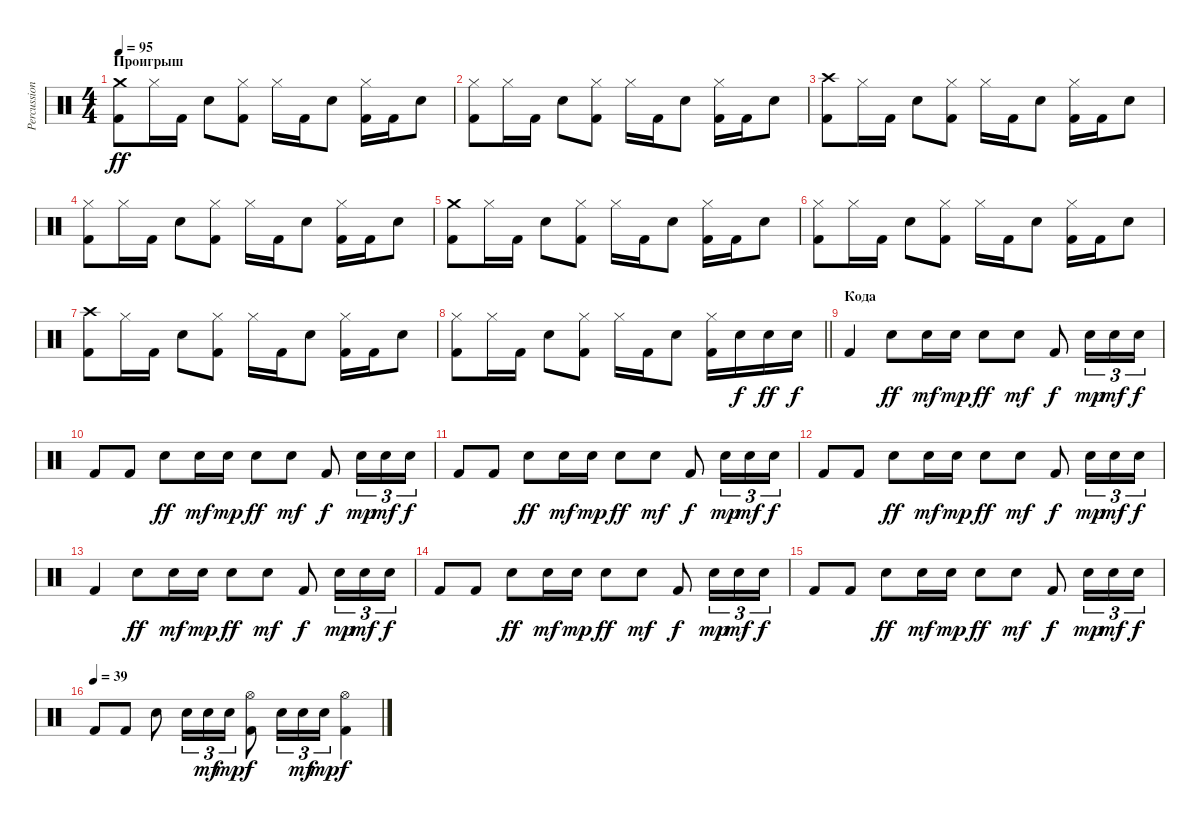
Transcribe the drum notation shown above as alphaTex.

\track ("Percussion" "Percussion") {instrument percussion}
\staff {score}
\articulation defaults
\ts (4 4)
\section ("" "Проигрыш")
\tempo 95
\clef neutral
\ks c
("Crash medium (hit)" "Kick (hit) 2").8{dy ff} "Hi-Hat (closed)".16 "Kick (hit) 2".16 "Electric Snare (hit)".8 ("Hi-Hat (closed)" "Kick (hit) 2").8 "Hi-Hat (closed)".16 "Kick (hit) 2".16 "Electric Snare (hit)".8 ("Hi-Hat (closed)" "Kick (hit) 2").16 "Kick (hit) 2".16 "Electric Snare (hit)".8 |
("Hi-Hat (closed)" "Kick (hit) 2").8 "Hi-Hat (closed)".16 "Kick (hit) 2".16 "Electric Snare (hit)".8 ("Hi-Hat (closed)" "Kick (hit) 2").8 "Hi-Hat (closed)".16 "Kick (hit) 2".16 "Electric Snare (hit)".8 ("Hi-Hat (closed)" "Kick (hit) 2").16 "Kick (hit) 2".16 "Electric Snare (hit)".8 |
("Crash high (hit)" "Kick (hit) 2").8 "Hi-Hat (closed)".16 "Kick (hit) 2".16 "Electric Snare (hit)".8 ("Hi-Hat (closed)" "Kick (hit) 2").8 "Hi-Hat (closed)".16 "Kick (hit) 2".16 "Electric Snare (hit)".8 ("Hi-Hat (closed)" "Kick (hit) 2").16 "Kick (hit) 2".16 "Electric Snare (hit)".8 |
("Hi-Hat (closed)" "Kick (hit) 2").8 "Hi-Hat (closed)".16 "Kick (hit) 2".16 "Electric Snare (hit)".8 ("Hi-Hat (closed)" "Kick (hit) 2").8 "Hi-Hat (closed)".16 "Kick (hit) 2".16 "Electric Snare (hit)".8 ("Hi-Hat (closed)" "Kick (hit) 2").16 "Kick (hit) 2".16 "Electric Snare (hit)".8 |
("Crash medium (hit)" "Kick (hit) 2").8 "Hi-Hat (closed)".16 "Kick (hit) 2".16 "Electric Snare (hit)".8 ("Hi-Hat (closed)" "Kick (hit) 2").8 "Hi-Hat (closed)".16 "Kick (hit) 2".16 "Electric Snare (hit)".8 ("Hi-Hat (closed)" "Kick (hit) 2").16 "Kick (hit) 2".16 "Electric Snare (hit)".8 |
("Hi-Hat (closed)" "Kick (hit) 2").8 "Hi-Hat (closed)".16 "Kick (hit) 2".16 "Electric Snare (hit)".8 ("Hi-Hat (closed)" "Kick (hit) 2").8 "Hi-Hat (closed)".16 "Kick (hit) 2".16 "Electric Snare (hit)".8 ("Hi-Hat (closed)" "Kick (hit) 2").16 "Kick (hit) 2".16 "Electric Snare (hit)".8 |
("Crash high (hit)" "Kick (hit) 2").8 "Hi-Hat (closed)".16 "Kick (hit) 2".16 "Electric Snare (hit)".8 ("Hi-Hat (closed)" "Kick (hit) 2").8 "Hi-Hat (closed)".16 "Kick (hit) 2".16 "Electric Snare (hit)".8 ("Hi-Hat (closed)" "Kick (hit) 2").16 "Kick (hit) 2".16 "Electric Snare (hit)".8 |
\barLineRight lightlight
("Hi-Hat (closed)" "Kick (hit) 2").8 "Hi-Hat (closed)".16 "Kick (hit) 2".16 "Electric Snare (hit)".8 ("Hi-Hat (closed)" "Kick (hit) 2").8 "Hi-Hat (closed)".16 "Kick (hit) 2".16 "Electric Snare (hit)".8 ("Hi-Hat (closed)" "Kick (hit) 2").16 "Electric Snare (hit)".16{dy f} "Electric Snare (hit)".16{dy ff} "Electric Snare (hit)".16{dy f} |
\section ("" "Кода")
"Kick (hit) 2".4{volume 9} "Electric Snare (hit)".8{dy ff} "Electric Snare (hit)".16{dy mf} "Electric Snare (hit)".16{dy mp} "Electric Snare (hit)".8{dy ff} "Electric Snare (hit)".8{dy mf} "Kick (hit) 2".8{dy f} "Electric Snare (hit)".16{tu (3 2) dy mp} "Electric Snare (hit)".16{tu (3 2) dy mf} "Electric Snare (hit)".16{tu (3 2) dy f} |
"Kick (hit) 2".8 "Kick (hit) 2".8 "Electric Snare (hit)".8{dy ff} "Electric Snare (hit)".16{dy mf} "Electric Snare (hit)".16{dy mp} "Electric Snare (hit)".8{dy ff} "Electric Snare (hit)".8{dy mf} "Kick (hit) 2".8{dy f} "Electric Snare (hit)".16{tu (3 2) dy mp} "Electric Snare (hit)".16{tu (3 2) dy mf} "Electric Snare (hit)".16{tu (3 2) dy f} |
"Kick (hit) 2".8 "Kick (hit) 2".8 "Electric Snare (hit)".8{dy ff} "Electric Snare (hit)".16{dy mf} "Electric Snare (hit)".16{dy mp} "Electric Snare (hit)".8{dy ff} "Electric Snare (hit)".8{dy mf} "Kick (hit) 2".8{dy f} "Electric Snare (hit)".16{tu (3 2) dy mp} "Electric Snare (hit)".16{tu (3 2) dy mf} "Electric Snare (hit)".16{tu (3 2) dy f} |
"Kick (hit) 2".8 "Kick (hit) 2".8 "Electric Snare (hit)".8{dy ff} "Electric Snare (hit)".16{dy mf} "Electric Snare (hit)".16{dy mp} "Electric Snare (hit)".8{dy ff} "Electric Snare (hit)".8{dy mf} "Kick (hit) 2".8{dy f} "Electric Snare (hit)".16{tu (3 2) dy mp} "Electric Snare (hit)".16{tu (3 2) dy mf} "Electric Snare (hit)".16{tu (3 2) dy f} |
"Kick (hit) 2".4 "Electric Snare (hit)".8{dy ff} "Electric Snare (hit)".16{dy mf} "Electric Snare (hit)".16{dy mp} "Electric Snare (hit)".8{dy ff} "Electric Snare (hit)".8{dy mf} "Kick (hit) 2".8{dy f} "Electric Snare (hit)".16{tu (3 2) dy mp} "Electric Snare (hit)".16{tu (3 2) dy mf} "Electric Snare (hit)".16{tu (3 2) dy f} |
"Kick (hit) 2".8 "Kick (hit) 2".8 "Electric Snare (hit)".8{dy ff} "Electric Snare (hit)".16{dy mf} "Electric Snare (hit)".16{dy mp} "Electric Snare (hit)".8{dy ff} "Electric Snare (hit)".8{dy mf} "Kick (hit) 2".8{dy f} "Electric Snare (hit)".16{tu (3 2) dy mp} "Electric Snare (hit)".16{tu (3 2) dy mf} "Electric Snare (hit)".16{tu (3 2) dy f} |
"Kick (hit) 2".8 "Kick (hit) 2".8 "Electric Snare (hit)".8{dy ff} "Electric Snare (hit)".16{dy mf} "Electric Snare (hit)".16{dy mp} "Electric Snare (hit)".8{dy ff} "Electric Snare (hit)".8{dy mf} "Kick (hit) 2".8{dy f} "Electric Snare (hit)".16{tu (3 2) dy mp} "Electric Snare (hit)".16{tu (3 2) dy mf} "Electric Snare (hit)".16{tu (3 2) dy f} |
\tempo (39)
"Kick (hit) 2".8 "Kick (hit) 2".8 "Electric Snare (hit)".8 "Electric Snare (hit)".16{tu (3 2)} "Electric Snare (hit)".16{tu (3 2) dy mf} "Electric Snare (hit)".16{tu (3 2) dy mp} ("Hi-Hat (open)" "Kick (hit) 2").8{dy f} "Electric Snare (hit)".16{tu (3 2)} "Electric Snare (hit)".16{tu (3 2) dy mf} "Electric Snare (hit)".16{tu (3 2) dy mp} ("Hi-Hat (open)" "Kick (hit) 2").4{dy f}
